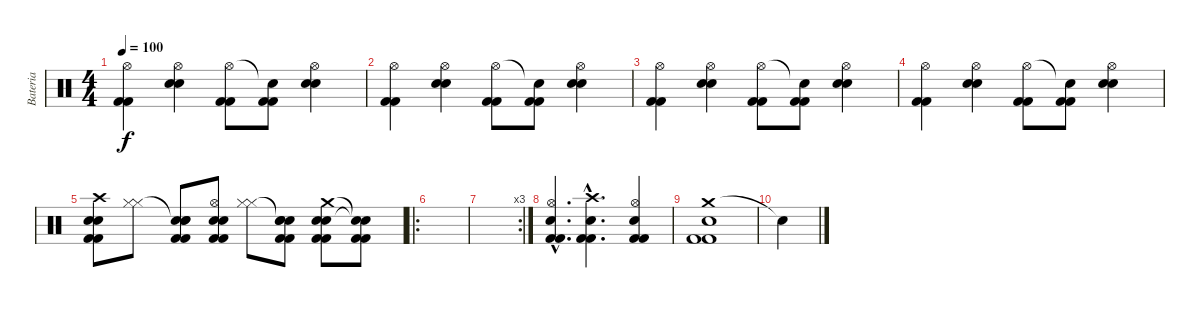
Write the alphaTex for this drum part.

\track ("Bateria" "Bateria") {instrument percussion}
\staff {score}
\articulation defaults
\ts (4 4)
\tempo 100
\clef neutral
\ks c
("Kick (hit) 2" "Kick (hit) 2" "Hi-Hat (open)").4{dy f} ("Electric Snare (hit)" "Electric Snare (hit)" "Hi-Hat (open)").4 ("Kick (hit) 2" "Kick (hit) 2" "Hi-Hat (open)").8 ("Kick (hit) 2" "Kick (hit) 2" "Snare (hit)"{t}).8 ("Electric Snare (hit)" "Electric Snare (hit)" "Hi-Hat (open)").4 |
("Kick (hit) 2" "Kick (hit) 2" "Hi-Hat (open)").4 ("Electric Snare (hit)" "Electric Snare (hit)" "Hi-Hat (open)").4 ("Kick (hit) 2" "Kick (hit) 2" "Hi-Hat (open)").8 ("Kick (hit) 2" "Kick (hit) 2" "Snare (hit)"{t}).8 ("Electric Snare (hit)" "Electric Snare (hit)" "Hi-Hat (open)").4 |
("Kick (hit) 2" "Kick (hit) 2" "Hi-Hat (open)").4 ("Electric Snare (hit)" "Electric Snare (hit)" "Hi-Hat (open)").4 ("Kick (hit) 2" "Kick (hit) 2" "Hi-Hat (open)").8 ("Kick (hit) 2" "Kick (hit) 2" "Snare (hit)"{t}).8 ("Electric Snare (hit)" "Electric Snare (hit)" "Hi-Hat (open)").4 |
("Kick (hit) 2" "Kick (hit) 2" "Hi-Hat (open)").4 ("Electric Snare (hit)" "Electric Snare (hit)" "Hi-Hat (open)").4 ("Kick (hit) 2" "Kick (hit) 2" "Hi-Hat (open)").8 ("Kick (hit) 2" "Kick (hit) 2" "Snare (hit)"{t}).8 ("Electric Snare (hit)" "Electric Snare (hit)" "Hi-Hat (open)").4 |
("Crash high (hit)" "Snare (hit) 2" "Snare (hit) 2" "Kick (hit) 2" "Kick (hit) 2").8 ("Hi-Hat (closed)" "Hi-Hat (closed)").8 ("Snare (hit)"{t} "Electric Snare (hit)" "Electric Snare (hit)" "Kick (hit) 2" "Kick (hit) 2").8 ("Hi-Hat (open)" "Snare (hit) 2" "Snare (hit) 2" "Kick (hit) 2" "Kick (hit) 2").8 ("Hi-Hat (closed)" "Hi-Hat (closed)").8 ("Snare (hit)"{t} "Electric Snare (hit)" "Electric Snare (hit)" "Kick (hit) 2" "Kick (hit) 2").8 ("Crash medium (hit)" "Snare (hit) 2" "Snare (hit) 2" "Kick (hit) 2" "Kick (hit) 2").8 ("Snare (hit)"{t} "Snare (hit) 2"{t} "Kick (hit) 2" "Kick (hit) 2").8 |
\ro
|
\rc 3
|
("Hi-Hat (open)"{hac} "Snare (hit) 2"{hac} "Kick (hit) 2"{hac} "Kick (hit) 2"{hac}).4{d} ("Crash high (hit)"{hac} "Snare (hit) 2"{hac} "Kick (hit) 2"{hac} "Kick (hit) 2"{hac}).4{d} ("Hi-Hat (open)" "Snare (hit) 2" "Kick (hit) 2" "Kick (hit) 2").4 |
("Crash medium (hit)" "Snare (hit) 2" "Kick (hit) 2" "Kick (hit) 2").1{volume 0} |
"Snare (hit)"{t}.4
